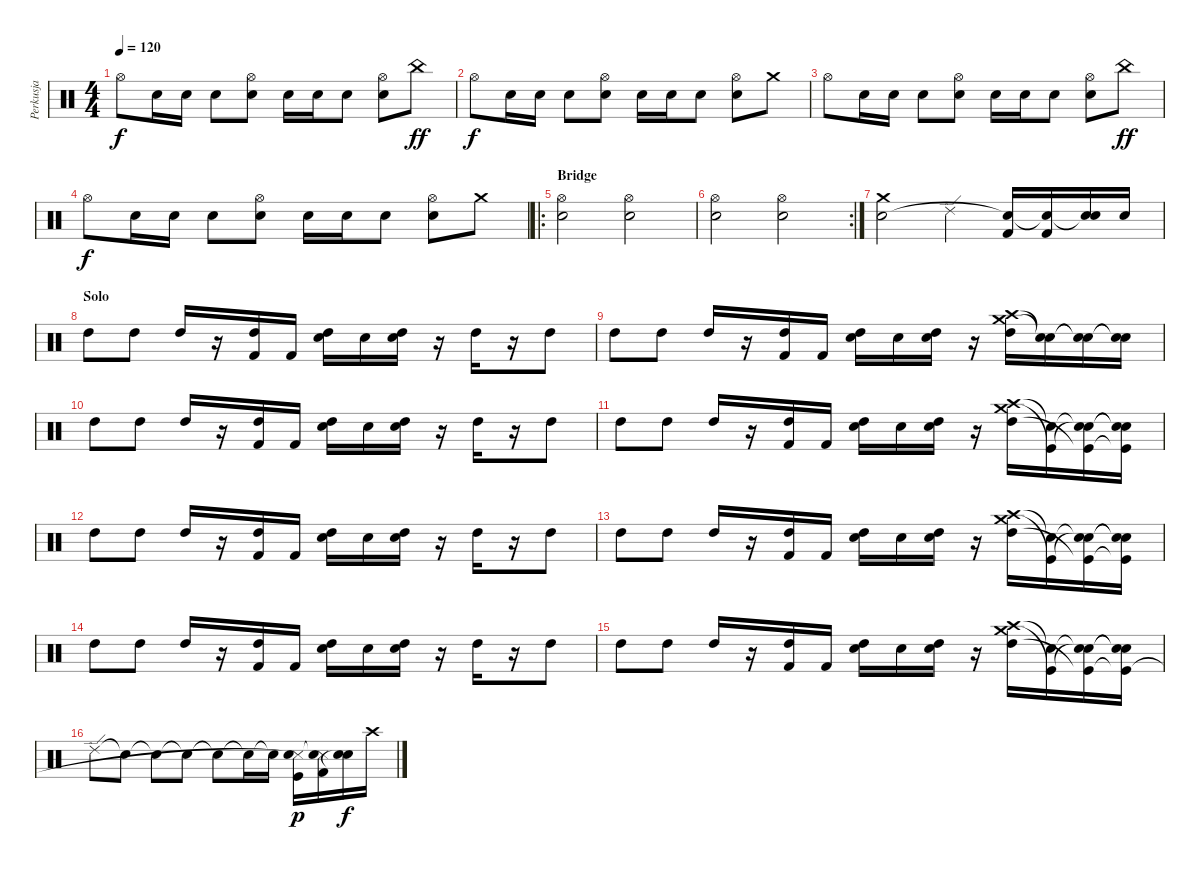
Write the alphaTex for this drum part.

\track ("Perkusja" "Perkusja") {instrument percussion}
\staff {score}
\articulation defaults
\ts (4 4)
\tempo 120
\clef neutral
\ks c "Hi-Hat (open)".8{dy f} "Electric Snare (hit)".16 "Electric Snare (hit)".16 "Snare (hit) 2".8
("Metronome (bell)" "Hi-Hat (open)").8 "Electric Snare (hit)".16 "Electric Snare (hit)".16 "Snare (hit) 2".8 ("Metronome (bell)" "Hi-Hat (open)").8 "China (hit)".8{dy ff} |
"Hi-Hat (open)".8{dy f} "Electric Snare (hit)".16 "Electric Snare (hit)".16 "Snare (hit) 2".8 ("Metronome (bell)" "Hi-Hat (open)").8 "Electric Snare (hit)".16 "Electric Snare (hit)".16 "Snare (hit) 2".8 ("Metronome (bell)" "Hi-Hat (open)").8 "Crash medium (hit)".8 |
"Hi-Hat (open)".8 "Electric Snare (hit)".16 "Electric Snare (hit)".16 "Snare (hit) 2".8 ("Metronome (bell)" "Hi-Hat (open)").8 "Electric Snare (hit)".16 "Electric Snare (hit)".16 "Snare (hit) 2".8 ("Metronome (bell)" "Hi-Hat (open)").8 "China (hit)".8{dy ff} |
"Hi-Hat (open)".8{dy f} "Electric Snare (hit)".16 "Electric Snare (hit)".16 "Snare (hit) 2".8 ("Metronome (bell)" "Hi-Hat (open)").8 "Electric Snare (hit)".16 "Electric Snare (hit)".16 "Snare (hit) 2".8 ("Metronome (bell)" "Hi-Hat (open)").8 "Crash medium (hit)".8 |
\ro
\section ("" "Bridge")
("Hi-Hat (open)" "Electric Snare (hit)").2 ("Hi-Hat (open)" "Electric Snare (hit)").2 |
\rc 2
("Hi-Hat (open)" "Electric Snare (hit)").2 ("Hi-Hat (open)" "Electric Snare (hit)").2 |
("Crash medium (hit)" "Electric Snare (hit)").2 "Ride (edge) 2".4 ("Kick (hit) 2" "Snare (hit)"{t}).16 ("Kick (hit) 2" "Snare (hit)"{t}).16 ("Electric Snare (hit)" "Snare (hit)"{t}).16 "Snare (hit) 2".16 |
\section ("" "Solo")
"High Tom (hit)".8 "High Tom (hit)".8 "High Tom (hit)".16 r.16 ("Kick (hit) 2" "High Tom (hit)").16 "Kick (hit) 2".16 ("Electric Snare (hit)" "High Tom (hit)").16 "Electric Snare (hit)".16 ("Snare (hit) 2" "High Tom (hit)").16 r.16 "High Tom (hit)".16 r.16 "High Tom (hit)".8 |
"High Tom (hit)".8 "High Tom (hit)".8 "High Tom (hit)".16 r.16 ("Kick (hit) 2" "High Tom (hit)").16 "Kick (hit) 2".16 ("Electric Snare (hit)" "High Tom (hit)").16 "Electric Snare (hit)".16 ("Snare (hit) 2" "High Tom (hit)").16 r.16 ("Crash high (hit)" "Crash medium (hit)" "High Tom (hit)").16 ("Snare (hit)"{t} "Snare (hit)"{t}).16 ("Snare (hit)"{t} "Snare (hit)"{t}).16 ("Snare (hit)"{t} "Snare (hit)"{t}).16 |
"High Tom (hit)".8 "High Tom (hit)".8 "High Tom (hit)".16 r.16 ("Kick (hit) 2" "High Tom (hit)").16 "Kick (hit) 2".16 ("Electric Snare (hit)" "High Tom (hit)").16 "Electric Snare (hit)".16 ("Snare (hit) 2" "High Tom (hit)").16 r.16 "High Tom (hit)".16 r.16 "High Tom (hit)".8 |
"High Tom (hit)".8 "High Tom (hit)".8 "High Tom (hit)".16 r.16 ("Kick (hit) 2" "High Tom (hit)").16 "Kick (hit) 2".16 ("Electric Snare (hit)" "High Tom (hit)").16 "Electric Snare (hit)".16 ("Snare (hit) 2" "High Tom (hit)").16 r.16 ("Crash high (hit)" "Crash medium (hit)" "High Tom (hit)").16 ("Snare (hit)"{t} "Kick (hit)"{t}).16 ("Snare (hit)"{t} "Snare (hit)"{t} "Kick (hit)"{t}).16 ("Snare (hit)"{t} "Snare (hit)"{t} "Kick (hit)"{t}).16 |
"High Tom (hit)".8 "High Tom (hit)".8 "High Tom (hit)".16 r.16 ("Kick (hit) 2" "High Tom (hit)").16 "Kick (hit) 2".16 ("Electric Snare (hit)" "High Tom (hit)").16 "Electric Snare (hit)".16 ("Snare (hit) 2" "High Tom (hit)").16 r.16 "High Tom (hit)".16 r.16 "High Tom (hit)".8 |
"High Tom (hit)".8 "High Tom (hit)".8 "High Tom (hit)".16 r.16 ("Kick (hit) 2" "High Tom (hit)").16 "Kick (hit) 2".16 ("Electric Snare (hit)" "High Tom (hit)").16 "Electric Snare (hit)".16 ("Snare (hit) 2" "High Tom (hit)").16 r.16 ("Crash high (hit)" "Crash medium (hit)" "High Tom (hit)").16 ("Snare (hit)"{t} "Kick (hit)"{t}).16 ("Snare (hit)"{t} "Snare (hit)"{t} "Kick (hit)"{t}).16 ("Snare (hit)"{t} "Snare (hit)"{t} "Kick (hit)"{t}).16 |
"High Tom (hit)".8 "High Tom (hit)".8 "High Tom (hit)".16 r.16 ("Kick (hit) 2" "High Tom (hit)").16 "Kick (hit) 2".16 ("Electric Snare (hit)" "High Tom (hit)").16 "Electric Snare (hit)".16 ("Snare (hit) 2" "High Tom (hit)").16 r.16 "High Tom (hit)".16 r.16 "High Tom (hit)".8 |
"High Tom (hit)".8 "High Tom (hit)".8 "High Tom (hit)".16 r.16 ("Kick (hit) 2" "High Tom (hit)").16 "Kick (hit) 2".16 ("Electric Snare (hit)" "High Tom (hit)").16 "Electric Snare (hit)".16 ("Snare (hit) 2" "High Tom (hit)").16 r.16 ("Crash high (hit)" "Crash medium (hit)" "High Tom (hit)").16 ("Snare (hit)"{t} "Kick (hit)"{t}).16 ("Snare (hit)"{t} "Snare (hit)"{t} "Kick (hit)"{t}).16 ("Snare (hit)"{t} "Snare (hit)"{t} "Kick (hit)"{t}).16 |
"Ride (edge) 2".8 "Snare (hit)"{t}.8 "Snare (hit)"{t}.8 "Snare (hit)"{t}.8 "Snare (hit)"{t}.8 "Snare (hit)"{t}.16 "Snare (hit)"{t}.16 ("Snare (side stick) 3" "Kick (hit)" "Snare (hit)"{t}).16{dy p} ("Snare (side stick) 3" "Kick (hit) 2" "Snare (hit)"{t}).16 ("Snare (hit) 2" "Snare (hit)"{t}).16{dy f} "Crash high (hit)".16
